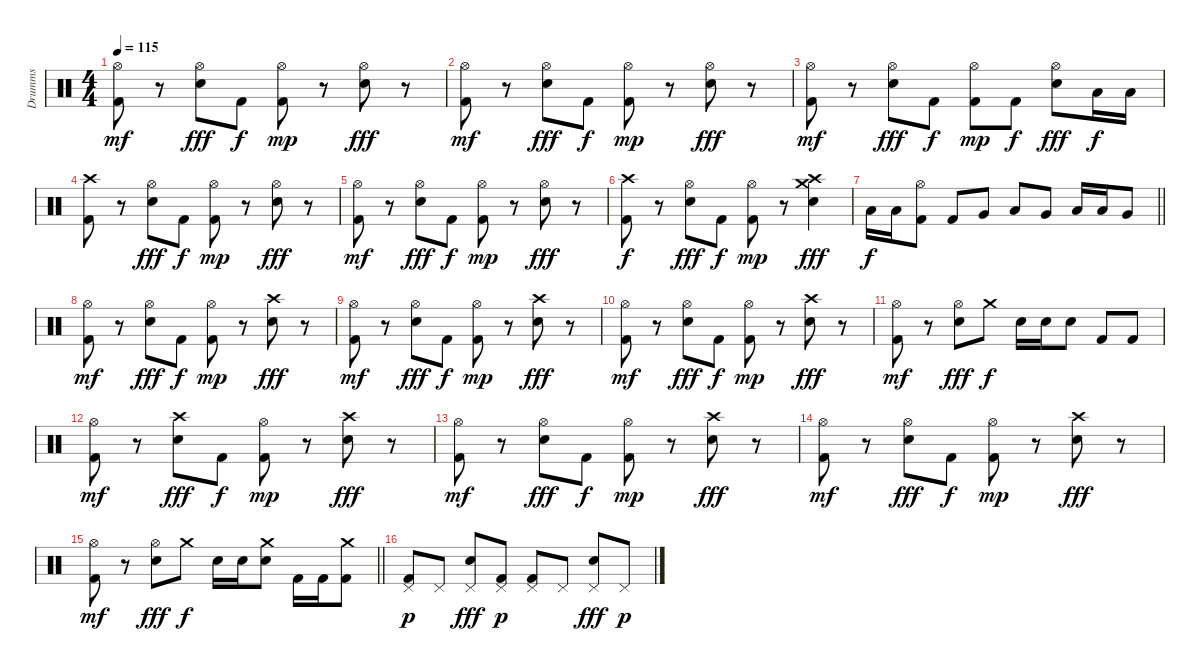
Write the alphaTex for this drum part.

\track ("Drumms" "Drumms") {instrument percussion}
\staff {score}
\articulation defaults
\ts (4 4)
\tempo 115
\clef neutral
\ks c
("Hi-Hat (open)" "Kick (hit) 2").8{dy mf} r.8 ("Hi-Hat (open)" "Snare (hit) 2").8{dy fff} "Kick (hit) 2".8{dy f} ("Hi-Hat (open)" "Kick (hit) 2").8{dy mp} r.8 ("Hi-Hat (open)" "Snare (hit) 2").8{dy fff} r.8 |
("Hi-Hat (open)" "Kick (hit) 2").8{dy mf} r.8 ("Hi-Hat (open)" "Snare (hit) 2").8{dy fff} "Kick (hit) 2".8{dy f} ("Hi-Hat (open)" "Kick (hit) 2").8{dy mp} r.8 ("Hi-Hat (open)" "Snare (hit) 2").8{dy fff} r.8 |
("Hi-Hat (open)" "Kick (hit) 2").8{dy mf} r.8 ("Hi-Hat (open)" "Snare (hit) 2").8{dy fff} "Kick (hit) 2".8{dy f} ("Hi-Hat (open)" "Kick (hit) 2").8{dy mp} "Kick (hit) 2".8{dy f} ("Hi-Hat (open)" "Snare (hit) 2").8{dy fff} "Low Tom (hit)".16{dy f} "Low Tom (hit)".16 |
("Crash high (hit)" "Kick (hit) 2").8 r.8 ("Hi-Hat (open)" "Snare (hit) 2").8{dy fff} "Kick (hit) 2".8{dy f} ("Hi-Hat (open)" "Kick (hit) 2").8{dy mp} r.8 ("Hi-Hat (open)" "Snare (hit) 2").8{dy fff} r.8 |
("Hi-Hat (open)" "Kick (hit) 2").8{dy mf} r.8 ("Hi-Hat (open)" "Snare (hit) 2").8{dy fff} "Kick (hit) 2".8{dy f} ("Hi-Hat (open)" "Kick (hit) 2").8{dy mp} r.8 ("Hi-Hat (open)" "Snare (hit) 2").8{dy fff} r.8 |
("Crash high (hit)" "Kick (hit) 2").8{dy f} r.8 ("Hi-Hat (open)" "Snare (hit) 2").8{dy fff} "Kick (hit) 2".8{dy f} ("Hi-Hat (open)" "Kick (hit) 2").8{dy mp} r.8 ("Crash high (hit)" "Crash medium (hit)" "Snare (hit) 2").4{dy fff} |
\barLineRight lightlight "Low Tom (hit)".16{dy f} "Low Tom (hit)".16
("Hi-Hat (open)" "Kick (hit) 2").8 "Kick (hit) 2".8 "Very Low Tom (hit)".8 "Low Tom (hit)".8 "Very Low Tom (hit)".8 "Low Tom (hit)".16 "Low Tom (hit)".16 "Very Low Tom (hit)".8 |
\section ("" "")
("Hi-Hat (open)" "Kick (hit) 2").8{dy mf} r.8 ("Hi-Hat (open)" "Snare (hit) 2").8{dy fff} "Kick (hit) 2".8{dy f} ("Hi-Hat (open)" "Kick (hit) 2").8{dy mp} r.8 ("Crash high (hit)" "Snare (hit) 2").8{dy fff} r.8 |
("Hi-Hat (open)" "Kick (hit) 2").8{dy mf} r.8 ("Hi-Hat (open)" "Snare (hit) 2").8{dy fff} "Kick (hit) 2".8{dy f} ("Hi-Hat (open)" "Kick (hit) 2").8{dy mp} r.8 ("Crash high (hit)" "Snare (hit) 2").8{dy fff} r.8 |
("Hi-Hat (open)" "Kick (hit) 2").8{dy mf} r.8 ("Hi-Hat (open)" "Snare (hit) 2").8{dy fff} "Kick (hit) 2".8{dy f} ("Hi-Hat (open)" "Kick (hit) 2").8{dy mp} r.8 ("Crash high (hit)" "Snare (hit) 2").8{dy fff} r.8 |
("Hi-Hat (open)" "Kick (hit) 2").8{dy mf} r.8 ("Hi-Hat (open)" "Snare (hit) 2").8{dy fff} "Crash medium (hit)".8{dy f} "Electric Snare (hit)".16 "Electric Snare (hit)".16 "Electric Snare (hit)".8 "Kick (hit) 2".8 "Kick (hit) 2".8 |
("Hi-Hat (open)" "Kick (hit) 2").8{dy mf} r.8 ("Crash high (hit)" "Snare (hit) 2").8{dy fff} "Kick (hit) 2".8{dy f} ("Hi-Hat (open)" "Kick (hit) 2").8{dy mp} r.8 ("Crash high (hit)" "Snare (hit) 2").8{dy fff} r.8 |
("Hi-Hat (open)" "Kick (hit) 2").8{dy mf} r.8 ("Hi-Hat (open)" "Snare (hit) 2").8{dy fff} "Kick (hit) 2".8{dy f} ("Hi-Hat (open)" "Kick (hit) 2").8{dy mp} r.8 ("Crash high (hit)" "Snare (hit) 2").8{dy fff} r.8 |
("Hi-Hat (open)" "Kick (hit) 2").8{dy mf} r.8 ("Hi-Hat (open)" "Snare (hit) 2").8{dy fff} "Kick (hit) 2".8{dy f} ("Hi-Hat (open)" "Kick (hit) 2").8{dy mp} r.8 ("Crash high (hit)" "Snare (hit) 2").8{dy fff} r.8 |
\barLineRight lightlight
("Hi-Hat (open)" "Kick (hit) 2").8{dy mf} r.8 ("Hi-Hat (open)" "Snare (hit) 2").8{dy fff} "Crash medium (hit)".8{dy f} "Electric Snare (hit)".16 "Electric Snare (hit)".16 ("Crash medium (hit)" "Electric Snare (hit)").8 "Kick (hit) 2".16 "Kick (hit) 2".16 ("Crash medium (hit)" "Kick (hit) 2").8 |
\section ("" "")
("Pedal Hi-Hat (hit)" "Kick (hit) 2").8{dy p} "Pedal Hi-Hat (hit)".8 ("Pedal Hi-Hat (hit)" "Snare (hit) 2").8{dy fff} ("Pedal Hi-Hat (hit)" "Kick (hit) 2").8{dy p} ("Pedal Hi-Hat (hit)" "Kick (hit) 2").8 "Pedal Hi-Hat (hit)".8 ("Pedal Hi-Hat (hit)" "Snare (hit) 2").8{dy fff} "Pedal Hi-Hat (hit)".8{dy p}
